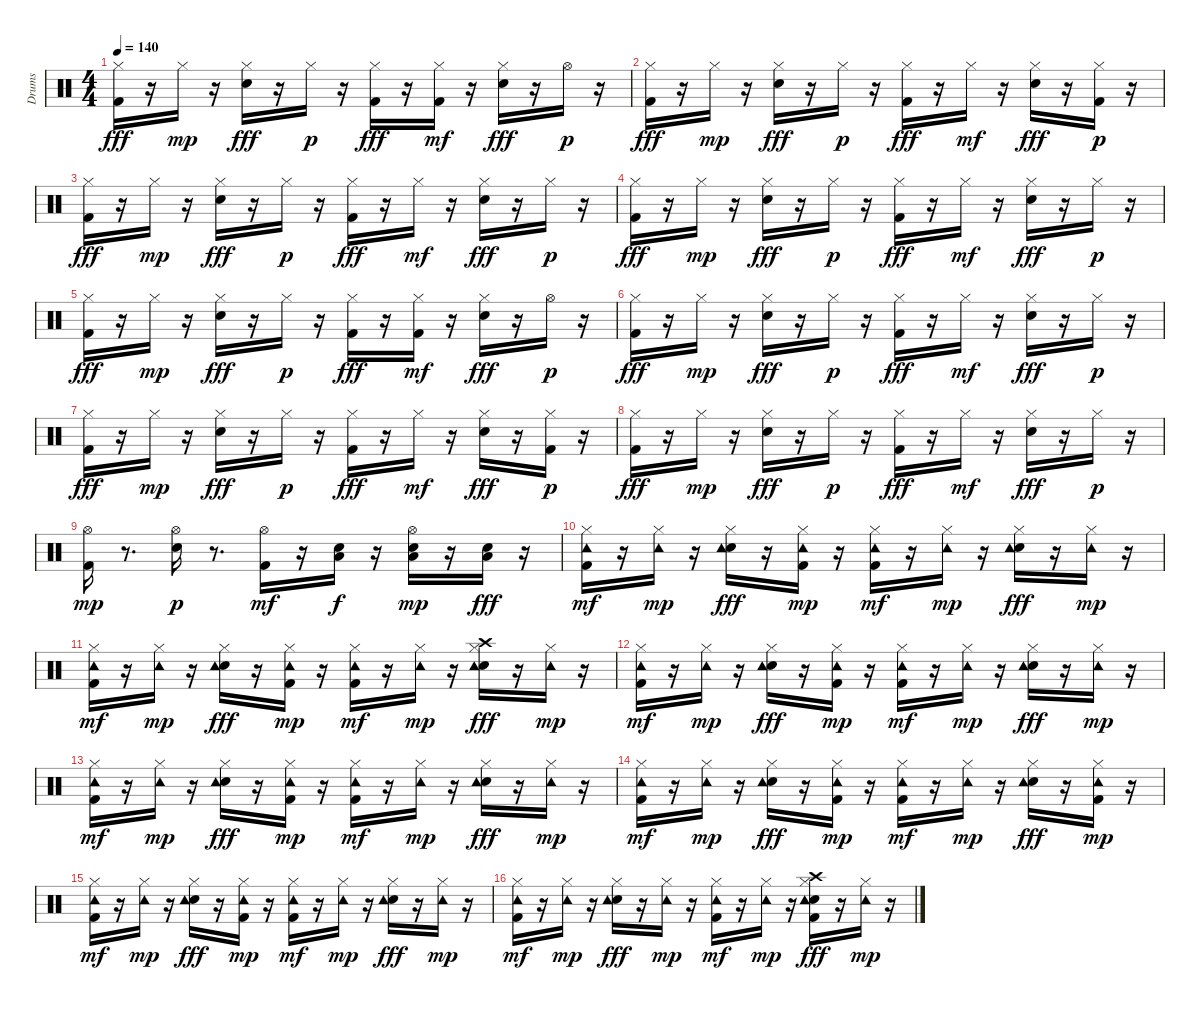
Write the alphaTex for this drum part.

\track ("Drums" "Drums") {instrument percussion}
\staff {score}
\articulation defaults
\ts (4 4)
\tempo 140
\clef neutral
\ks c
("Kick (hit) 2" "Hi-Hat (closed)").16{dy fff} r.16 "Hi-Hat (closed)".16{dy mp} r.16 ("Electric Snare (hit)" "Hi-Hat (closed)").16{dy fff} r.16 "Hi-Hat (closed)".16{dy p} r.16 ("Kick (hit) 2" "Hi-Hat (closed)").16{dy fff} r.16 ("Kick (hit) 2" "Hi-Hat (closed)").16{dy mf} r.16 ("Electric Snare (hit)" "Hi-Hat (closed)").16{dy fff} r.16 "Hi-Hat (open)".16{dy p} r.16 |
("Kick (hit) 2" "Hi-Hat (closed)").16{dy fff} r.16 "Hi-Hat (closed)".16{dy mp} r.16 ("Electric Snare (hit)" "Hi-Hat (closed)").16{dy fff} r.16 "Hi-Hat (closed)".16{dy p} r.16 ("Kick (hit) 2" "Hi-Hat (closed)").16{dy fff} r.16 "Hi-Hat (closed)".16{dy mf} r.16 ("Electric Snare (hit)" "Hi-Hat (closed)").16{dy fff} r.16 ("Kick (hit) 2" "Hi-Hat (closed)").16{dy p} r.16 |
("Kick (hit) 2" "Hi-Hat (closed)").16{dy fff} r.16 "Hi-Hat (closed)".16{dy mp} r.16 ("Electric Snare (hit)" "Hi-Hat (closed)").16{dy fff} r.16 "Hi-Hat (closed)".16{dy p} r.16 ("Kick (hit) 2" "Hi-Hat (closed)").16{dy fff} r.16 "Hi-Hat (closed)".16{dy mf} r.16 ("Electric Snare (hit)" "Hi-Hat (closed)").16{dy fff} r.16 "Hi-Hat (closed)".16{dy p} r.16 |
("Kick (hit) 2" "Hi-Hat (closed)").16{dy fff} r.16 "Hi-Hat (closed)".16{dy mp} r.16 ("Electric Snare (hit)" "Hi-Hat (closed)").16{dy fff} r.16 "Hi-Hat (closed)".16{dy p} r.16 ("Kick (hit) 2" "Hi-Hat (closed)").16{dy fff} r.16 "Hi-Hat (closed)".16{dy mf} r.16 ("Electric Snare (hit)" "Hi-Hat (closed)").16{dy fff} r.16 "Hi-Hat (closed)".16{dy p} r.16 |
("Kick (hit) 2" "Hi-Hat (closed)").16{dy fff} r.16 "Hi-Hat (closed)".16{dy mp} r.16 ("Electric Snare (hit)" "Hi-Hat (closed)").16{dy fff} r.16 "Hi-Hat (closed)".16{dy p} r.16 ("Kick (hit) 2" "Hi-Hat (closed)").16{dy fff} r.16 ("Kick (hit) 2" "Hi-Hat (closed)").16{dy mf} r.16 ("Electric Snare (hit)" "Hi-Hat (closed)").16{dy fff} r.16 "Hi-Hat (open)".16{dy p} r.16 |
("Kick (hit) 2" "Hi-Hat (closed)").16{dy fff} r.16 "Hi-Hat (closed)".16{dy mp} r.16 ("Electric Snare (hit)" "Hi-Hat (closed)").16{dy fff} r.16 "Hi-Hat (closed)".16{dy p} r.16 ("Kick (hit) 2" "Hi-Hat (closed)").16{dy fff} r.16 "Hi-Hat (closed)".16{dy mf} r.16 ("Electric Snare (hit)" "Hi-Hat (closed)").16{dy fff} r.16 "Hi-Hat (closed)".16{dy p} r.16 |
("Kick (hit) 2" "Hi-Hat (closed)").16{dy fff} r.16 "Hi-Hat (closed)".16{dy mp} r.16 ("Electric Snare (hit)" "Hi-Hat (closed)").16{dy fff} r.16 "Hi-Hat (closed)".16{dy p} r.16 ("Kick (hit) 2" "Hi-Hat (closed)").16{dy fff} r.16 "Hi-Hat (closed)".16{dy mf} r.16 ("Electric Snare (hit)" "Hi-Hat (closed)").16{dy fff} r.16 ("Kick (hit) 2" "Hi-Hat (closed)").16{dy p} r.16 |
("Kick (hit) 2" "Hi-Hat (closed)").16{dy fff} r.16 "Hi-Hat (closed)".16{dy mp} r.16 ("Electric Snare (hit)" "Hi-Hat (closed)").16{dy fff} r.16 "Hi-Hat (closed)".16{dy p} r.16 ("Kick (hit) 2" "Hi-Hat (closed)").16{dy fff} r.16 "Hi-Hat (closed)".16{dy mf} r.16 ("Electric Snare (hit)" "Hi-Hat (closed)").16{dy fff} r.16 "Hi-Hat (closed)".16{dy p} r.16 |
("Kick (hit) 2" "Hi-Hat (open)").16{dy mp} r.8{d} ("Electric Snare (hit)" "Hi-Hat (open)").16{dy p} r.8{d} ("Kick (hit) 2" "Hi-Hat (open)").16{dy mf} r.16 ("Electric Snare (hit)" "Low Tom (hit)").16{dy f} r.16 ("Electric Snare (hit)" "Low Tom (hit)" "Hi-Hat (open)").16{dy mp} r.16 ("Electric Snare (hit)" "Low Tom (hit)").16{dy fff} r.16 |
("Kick (hit) 2" "Hi-Hat (closed)" "Tambourine (hit)").16{dy mf} r.16 ("Hi-Hat (closed)" "Tambourine (hit)").16{dy mp} r.16 ("Electric Snare (hit)" "Hi-Hat (closed)" "Tambourine (hit)").16{dy fff} r.16 ("Kick (hit) 2" "Hi-Hat (closed)" "Tambourine (hit)").16{dy mp} r.16 ("Kick (hit) 2" "Hi-Hat (closed)" "Tambourine (hit)").16{dy mf} r.16 ("Hi-Hat (closed)" "Tambourine (hit)").16{dy mp} r.16 ("Electric Snare (hit)" "Hi-Hat (closed)" "Tambourine (hit)").16{dy fff} r.16 ("Hi-Hat (closed)" "Tambourine (hit)").16{dy mp} r.16 |
("Kick (hit) 2" "Hi-Hat (closed)" "Tambourine (hit)").16{dy mf} r.16 ("Hi-Hat (closed)" "Tambourine (hit)").16{dy mp} r.16 ("Electric Snare (hit)" "Hi-Hat (closed)" "Tambourine (hit)").16{dy fff} r.16 ("Kick (hit) 2" "Hi-Hat (closed)" "Tambourine (hit)").16{dy mp} r.16 ("Kick (hit) 2" "Hi-Hat (closed)" "Tambourine (hit)").16{dy mf} r.16 ("Hi-Hat (closed)" "Tambourine (hit)").16{dy mp} r.16 ("Electric Snare (hit)" "Hi-Hat (closed)" "Crash high (hit)" "Tambourine (hit)").16{dy fff} r.16 ("Hi-Hat (closed)" "Tambourine (hit)").16{dy mp} r.16 |
("Kick (hit) 2" "Hi-Hat (closed)" "Tambourine (hit)").16{dy mf} r.16 ("Hi-Hat (closed)" "Tambourine (hit)").16{dy mp} r.16 ("Electric Snare (hit)" "Hi-Hat (closed)" "Tambourine (hit)").16{dy fff} r.16 ("Kick (hit) 2" "Hi-Hat (closed)" "Tambourine (hit)").16{dy mp} r.16 ("Kick (hit) 2" "Hi-Hat (closed)" "Tambourine (hit)").16{dy mf} r.16 ("Hi-Hat (closed)" "Tambourine (hit)").16{dy mp} r.16 ("Electric Snare (hit)" "Hi-Hat (closed)" "Tambourine (hit)").16{dy fff} r.16 ("Hi-Hat (closed)" "Tambourine (hit)").16{dy mp} r.16 |
("Kick (hit) 2" "Hi-Hat (closed)" "Tambourine (hit)").16{dy mf} r.16 ("Hi-Hat (closed)" "Tambourine (hit)").16{dy mp} r.16 ("Electric Snare (hit)" "Hi-Hat (closed)" "Tambourine (hit)").16{dy fff} r.16 ("Kick (hit) 2" "Hi-Hat (closed)" "Tambourine (hit)").16{dy mp} r.16 ("Kick (hit) 2" "Hi-Hat (closed)" "Tambourine (hit)").16{dy mf} r.16 ("Hi-Hat (closed)" "Tambourine (hit)").16{dy mp} r.16 ("Electric Snare (hit)" "Hi-Hat (closed)" "Tambourine (hit)").16{dy fff} r.16 ("Hi-Hat (closed)" "Tambourine (hit)").16{dy mp} r.16 |
("Kick (hit) 2" "Hi-Hat (closed)" "Tambourine (hit)").16{dy mf} r.16 ("Hi-Hat (closed)" "Tambourine (hit)").16{dy mp} r.16 ("Electric Snare (hit)" "Hi-Hat (closed)" "Tambourine (hit)").16{dy fff} r.16 ("Kick (hit) 2" "Hi-Hat (closed)" "Tambourine (hit)").16{dy mp} r.16 ("Kick (hit) 2" "Hi-Hat (closed)" "Tambourine (hit)").16{dy mf} r.16 ("Hi-Hat (closed)" "Tambourine (hit)").16{dy mp} r.16 ("Electric Snare (hit)" "Hi-Hat (closed)" "Tambourine (hit)").16{dy fff} r.16 ("Kick (hit) 2" "Hi-Hat (closed)" "Tambourine (hit)").16{dy mp} r.16 |
("Kick (hit) 2" "Hi-Hat (closed)" "Tambourine (hit)").16{dy mf} r.16 ("Hi-Hat (closed)" "Tambourine (hit)").16{dy mp} r.16 ("Electric Snare (hit)" "Hi-Hat (closed)" "Tambourine (hit)").16{dy fff} r.16 ("Kick (hit) 2" "Hi-Hat (closed)" "Tambourine (hit)").16{dy mp} r.16 ("Kick (hit) 2" "Hi-Hat (closed)" "Tambourine (hit)").16{dy mf} r.16 ("Hi-Hat (closed)" "Tambourine (hit)").16{dy mp} r.16 ("Electric Snare (hit)" "Hi-Hat (closed)" "Tambourine (hit)").16{dy fff} r.16 ("Hi-Hat (closed)" "Tambourine (hit)").16{dy mp} r.16 |
("Kick (hit) 2" "Hi-Hat (closed)" "Tambourine (hit)").16{dy mf} r.16 ("Hi-Hat (closed)" "Tambourine (hit)").16{dy mp} r.16 ("Electric Snare (hit)" "Hi-Hat (closed)" "Tambourine (hit)").16{dy fff} r.16 ("Hi-Hat (closed)" "Tambourine (hit)").16{dy mp} r.16 ("Kick (hit) 2" "Hi-Hat (closed)" "Tambourine (hit)").16{dy mf} r.16 ("Hi-Hat (closed)" "Tambourine (hit)").16{dy mp} r.16 ("Kick (hit) 2" "Electric Snare (hit)" "Hi-Hat (closed)" "Crash high (hit)" "Tambourine (hit)").16{dy fff} r.16 ("Hi-Hat (closed)" "Tambourine (hit)").16{dy mp} r.16
